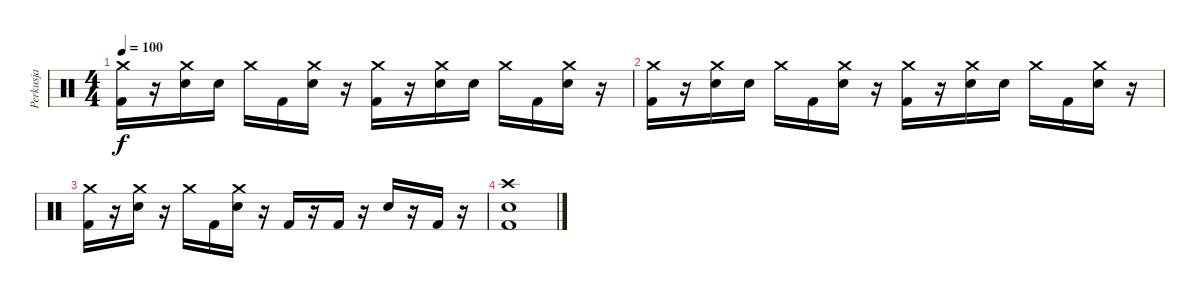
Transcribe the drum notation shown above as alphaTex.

\track ("Perkusja" "Perkusja") {instrument percussion}
\staff {score}
\articulation defaults
\ts (4 4)
\tempo 100
\clef neutral
\ks c
("Crash medium (hit)" "Kick (hit) 2").16{dy f} r.16 ("Crash medium (hit)" "Electric Snare (hit)").16 "Electric Snare (hit)".16 "Crash medium (hit)".16 "Kick (hit) 2".16 ("Crash medium (hit)" "Electric Snare (hit)").16 r.16 ("Crash medium (hit)" "Kick (hit) 2").16 r.16 ("Crash medium (hit)" "Electric Snare (hit)").16 "Electric Snare (hit)".16 "Crash medium (hit)".16 "Kick (hit) 2".16 ("Crash medium (hit)" "Electric Snare (hit)").16 r.16 |
("Crash medium (hit)" "Kick (hit) 2").16 r.16 ("Crash medium (hit)" "Electric Snare (hit)").16 "Electric Snare (hit)".16 "Crash medium (hit)".16 "Kick (hit) 2".16 ("Crash medium (hit)" "Electric Snare (hit)").16 r.16 ("Crash medium (hit)" "Kick (hit) 2").16 r.16 ("Crash medium (hit)" "Electric Snare (hit)").16 "Electric Snare (hit)".16 "Crash medium (hit)".16 "Kick (hit) 2".16 ("Crash medium (hit)" "Electric Snare (hit)").16 r.16 |
("Crash medium (hit)" "Kick (hit) 2").16 r.16 ("Crash medium (hit)" "Electric Snare (hit)").16 r.16 "Crash medium (hit)".16 "Kick (hit) 2".16 ("Crash medium (hit)" "Electric Snare (hit)").16 r.16 "Kick (hit) 2".16 r.16 "Kick (hit) 2".16 r.16 "Electric Snare (hit)".16 r.16 "Kick (hit) 2".16 r.16 |
("Crash high (hit)" "Electric Snare (hit)" "Kick (hit) 2").1
